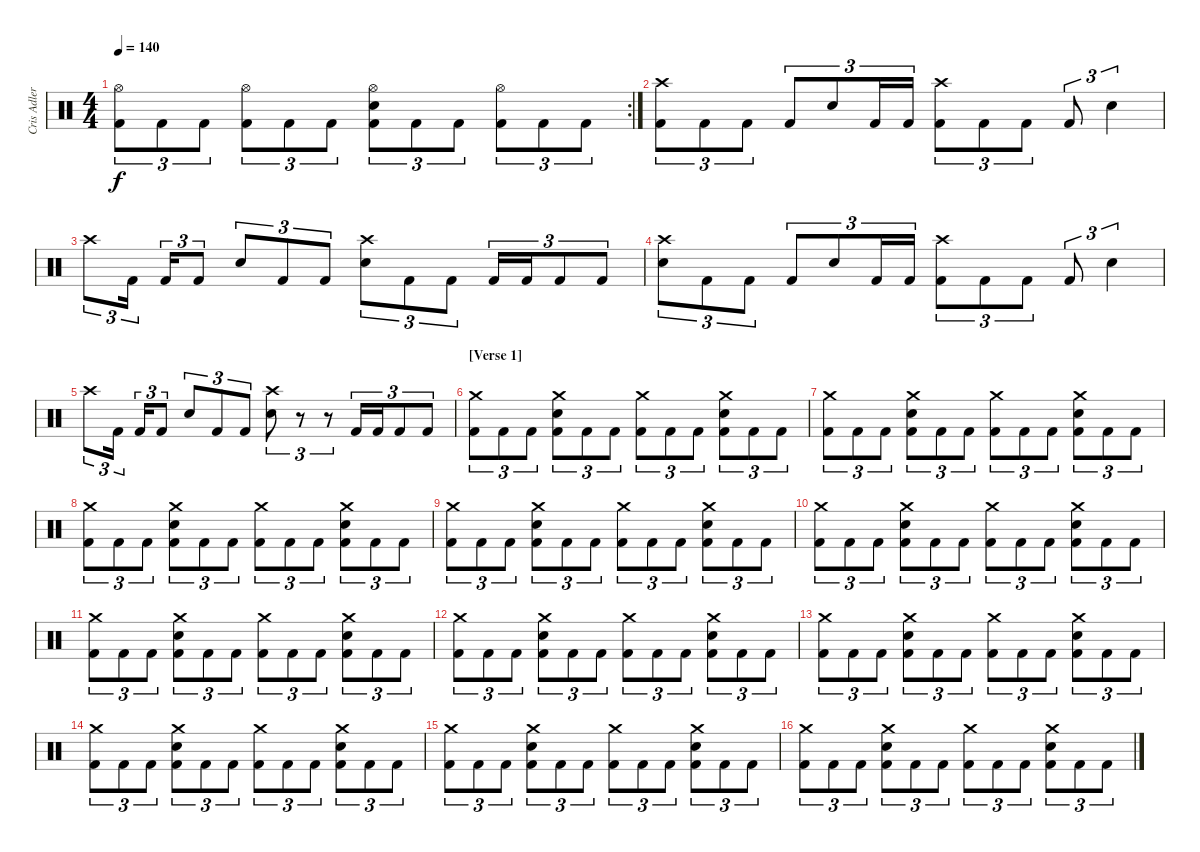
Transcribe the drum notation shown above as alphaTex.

\track ("Cris Adler" "Cris Adler") {instrument percussion}
\staff {score}
\articulation defaults
\rc 2
\ts (4 4)
\tempo 140
\clef neutral
\ks c
("Hi-Hat (open)" "Kick (hit) 2").8{tu (3 2) dy f} "Kick (hit) 2".8{tu (3 2)} "Kick (hit) 2".8{tu (3 2)} ("Hi-Hat (open)" "Kick (hit) 2").8{tu (3 2)} "Kick (hit) 2".8{tu (3 2)} "Kick (hit) 2".8{tu (3 2)} ("Hi-Hat (open)" "Electric Snare (hit)" "Kick (hit) 2").8{tu (3 2)} "Kick (hit) 2".8{tu (3 2)} "Kick (hit) 2".8{tu (3 2)} ("Hi-Hat (open)" "Kick (hit) 2").8{tu (3 2)} "Kick (hit) 2".8{tu (3 2)} "Kick (hit) 2".8{tu (3 2)} |
("Crash high (hit)" "Kick (hit) 2").8{tu (3 2)} "Kick (hit) 2".8{tu (3 2)} "Kick (hit) 2".8{tu (3 2)} "Kick (hit) 2".8{tu (3 2)} "Electric Snare (hit)".8{tu (3 2)} "Kick (hit) 2".16{tu (3 2)} "Kick (hit) 2".16{tu (3 2)} ("Crash high (hit)" "Kick (hit) 2").8{tu (3 2)} "Kick (hit) 2".8{tu (3 2)} "Kick (hit) 2".8{tu (3 2)} "Kick (hit) 2".8{tu (3 2)} "Electric Snare (hit)".4{tu (3 2)} |
"Crash high (hit)".8{tu (3 2)} "Kick (hit) 2".16{tu (3 2)} "Kick (hit) 2".16{tu (3 2)} "Kick (hit) 2".8{tu (3 2)} "Electric Snare (hit)".8{tu (3 2)} "Kick (hit) 2".8{tu (3 2)} "Kick (hit) 2".8{tu (3 2)} ("Crash high (hit)" "Electric Snare (hit)").8{tu (3 2)} "Kick (hit) 2".8{tu (3 2)} "Kick (hit) 2".8{tu (3 2)} "Kick (hit) 2".16{tu (3 2)} "Kick (hit) 2".16{tu (3 2)} "Kick (hit) 2".8{tu (3 2)} "Kick (hit) 2".8{tu (3 2)} |
("Crash high (hit)" "Electric Snare (hit)").8{tu (3 2)} "Kick (hit) 2".8{tu (3 2)} "Kick (hit) 2".8{tu (3 2)} "Kick (hit) 2".8{tu (3 2)} "Electric Snare (hit)".8{tu (3 2)} "Kick (hit) 2".16{tu (3 2)} "Kick (hit) 2".16{tu (3 2)} ("Crash high (hit)" "Kick (hit) 2").8{tu (3 2)} "Kick (hit) 2".8{tu (3 2)} "Kick (hit) 2".8{tu (3 2)} "Kick (hit) 2".8{tu (3 2)} "Electric Snare (hit)".4{tu (3 2)} |
"Crash high (hit)".8{tu (3 2)} "Kick (hit) 2".16{tu (3 2)} "Kick (hit) 2".16{tu (3 2)} "Kick (hit) 2".8{tu (3 2)} "Electric Snare (hit)".8{tu (3 2)} "Kick (hit) 2".8{tu (3 2)} "Kick (hit) 2".8{tu (3 2)} ("Crash high (hit)" "Electric Snare (hit)").8{tu (3 2)} r.8{tu (3 2)} r.8{tu (3 2)} "Kick (hit) 2".16{tu (3 2)} "Kick (hit) 2".16{tu (3 2)} "Kick (hit) 2".8{tu (3 2)} "Kick (hit) 2".8{tu (3 2)} |
\section ("" "[Verse 1]")
("Crash medium (hit)" "Kick (hit) 2").8{tu (3 2)} "Kick (hit) 2".8{tu (3 2)} "Kick (hit) 2".8{tu (3 2)} ("Crash medium (hit)" "Electric Snare (hit)" "Kick (hit) 2").8{tu (3 2)} "Kick (hit) 2".8{tu (3 2)} "Kick (hit) 2".8{tu (3 2)} ("Crash medium (hit)" "Kick (hit) 2").8{tu (3 2)} "Kick (hit) 2".8{tu (3 2)} "Kick (hit) 2".8{tu (3 2)} ("Crash medium (hit)" "Electric Snare (hit)" "Kick (hit) 2").8{tu (3 2)} "Kick (hit) 2".8{tu (3 2)} "Kick (hit) 2".8{tu (3 2)} |
("Crash medium (hit)" "Kick (hit) 2").8{tu (3 2)} "Kick (hit) 2".8{tu (3 2)} "Kick (hit) 2".8{tu (3 2)} ("Crash medium (hit)" "Electric Snare (hit)" "Kick (hit) 2").8{tu (3 2)} "Kick (hit) 2".8{tu (3 2)} "Kick (hit) 2".8{tu (3 2)} ("Crash medium (hit)" "Kick (hit) 2").8{tu (3 2)} "Kick (hit) 2".8{tu (3 2)} "Kick (hit) 2".8{tu (3 2)} ("Crash medium (hit)" "Electric Snare (hit)" "Kick (hit) 2").8{tu (3 2)} "Kick (hit) 2".8{tu (3 2)} "Kick (hit) 2".8{tu (3 2)} |
("Crash medium (hit)" "Kick (hit) 2").8{tu (3 2)} "Kick (hit) 2".8{tu (3 2)} "Kick (hit) 2".8{tu (3 2)} ("Crash medium (hit)" "Electric Snare (hit)" "Kick (hit) 2").8{tu (3 2)} "Kick (hit) 2".8{tu (3 2)} "Kick (hit) 2".8{tu (3 2)} ("Crash medium (hit)" "Kick (hit) 2").8{tu (3 2)} "Kick (hit) 2".8{tu (3 2)} "Kick (hit) 2".8{tu (3 2)} ("Crash medium (hit)" "Electric Snare (hit)" "Kick (hit) 2").8{tu (3 2)} "Kick (hit) 2".8{tu (3 2)} "Kick (hit) 2".8{tu (3 2)} |
("Crash medium (hit)" "Kick (hit) 2").8{tu (3 2)} "Kick (hit) 2".8{tu (3 2)} "Kick (hit) 2".8{tu (3 2)} ("Crash medium (hit)" "Electric Snare (hit)" "Kick (hit) 2").8{tu (3 2)} "Kick (hit) 2".8{tu (3 2)} "Kick (hit) 2".8{tu (3 2)} ("Crash medium (hit)" "Kick (hit) 2").8{tu (3 2)} "Kick (hit) 2".8{tu (3 2)} "Kick (hit) 2".8{tu (3 2)} ("Crash medium (hit)" "Electric Snare (hit)" "Kick (hit) 2").8{tu (3 2)} "Kick (hit) 2".8{tu (3 2)} "Kick (hit) 2".8{tu (3 2)} |
("Crash medium (hit)" "Kick (hit) 2").8{tu (3 2)} "Kick (hit) 2".8{tu (3 2)} "Kick (hit) 2".8{tu (3 2)} ("Crash medium (hit)" "Electric Snare (hit)" "Kick (hit) 2").8{tu (3 2)} "Kick (hit) 2".8{tu (3 2)} "Kick (hit) 2".8{tu (3 2)} ("Crash medium (hit)" "Kick (hit) 2").8{tu (3 2)} "Kick (hit) 2".8{tu (3 2)} "Kick (hit) 2".8{tu (3 2)} ("Crash medium (hit)" "Electric Snare (hit)" "Kick (hit) 2").8{tu (3 2)} "Kick (hit) 2".8{tu (3 2)} "Kick (hit) 2".8{tu (3 2)} |
("Crash medium (hit)" "Kick (hit) 2").8{tu (3 2)} "Kick (hit) 2".8{tu (3 2)} "Kick (hit) 2".8{tu (3 2)} ("Crash medium (hit)" "Electric Snare (hit)" "Kick (hit) 2").8{tu (3 2)} "Kick (hit) 2".8{tu (3 2)} "Kick (hit) 2".8{tu (3 2)} ("Crash medium (hit)" "Kick (hit) 2").8{tu (3 2)} "Kick (hit) 2".8{tu (3 2)} "Kick (hit) 2".8{tu (3 2)} ("Crash medium (hit)" "Electric Snare (hit)" "Kick (hit) 2").8{tu (3 2)} "Kick (hit) 2".8{tu (3 2)} "Kick (hit) 2".8{tu (3 2)} |
("Crash medium (hit)" "Kick (hit) 2").8{tu (3 2)} "Kick (hit) 2".8{tu (3 2)} "Kick (hit) 2".8{tu (3 2)} ("Crash medium (hit)" "Electric Snare (hit)" "Kick (hit) 2").8{tu (3 2)} "Kick (hit) 2".8{tu (3 2)} "Kick (hit) 2".8{tu (3 2)} ("Crash medium (hit)" "Kick (hit) 2").8{tu (3 2)} "Kick (hit) 2".8{tu (3 2)} "Kick (hit) 2".8{tu (3 2)} ("Crash medium (hit)" "Electric Snare (hit)" "Kick (hit) 2").8{tu (3 2)} "Kick (hit) 2".8{tu (3 2)} "Kick (hit) 2".8{tu (3 2)} |
("Crash medium (hit)" "Kick (hit) 2").8{tu (3 2)} "Kick (hit) 2".8{tu (3 2)} "Kick (hit) 2".8{tu (3 2)} ("Crash medium (hit)" "Electric Snare (hit)" "Kick (hit) 2").8{tu (3 2)} "Kick (hit) 2".8{tu (3 2)} "Kick (hit) 2".8{tu (3 2)} ("Crash medium (hit)" "Kick (hit) 2").8{tu (3 2)} "Kick (hit) 2".8{tu (3 2)} "Kick (hit) 2".8{tu (3 2)} ("Crash medium (hit)" "Electric Snare (hit)" "Kick (hit) 2").8{tu (3 2)} "Kick (hit) 2".8{tu (3 2)} "Kick (hit) 2".8{tu (3 2)} |
("Crash medium (hit)" "Kick (hit) 2").8{tu (3 2)} "Kick (hit) 2".8{tu (3 2)} "Kick (hit) 2".8{tu (3 2)} ("Crash medium (hit)" "Electric Snare (hit)" "Kick (hit) 2").8{tu (3 2)} "Kick (hit) 2".8{tu (3 2)} "Kick (hit) 2".8{tu (3 2)} ("Crash medium (hit)" "Kick (hit) 2").8{tu (3 2)} "Kick (hit) 2".8{tu (3 2)} "Kick (hit) 2".8{tu (3 2)} ("Crash medium (hit)" "Electric Snare (hit)" "Kick (hit) 2").8{tu (3 2)} "Kick (hit) 2".8{tu (3 2)} "Kick (hit) 2".8{tu (3 2)} |
("Crash medium (hit)" "Kick (hit) 2").8{tu (3 2)} "Kick (hit) 2".8{tu (3 2)} "Kick (hit) 2".8{tu (3 2)} ("Crash medium (hit)" "Electric Snare (hit)" "Kick (hit) 2").8{tu (3 2)} "Kick (hit) 2".8{tu (3 2)} "Kick (hit) 2".8{tu (3 2)} ("Crash medium (hit)" "Kick (hit) 2").8{tu (3 2)} "Kick (hit) 2".8{tu (3 2)} "Kick (hit) 2".8{tu (3 2)} ("Crash medium (hit)" "Electric Snare (hit)" "Kick (hit) 2").8{tu (3 2)} "Kick (hit) 2".8{tu (3 2)} "Kick (hit) 2".8{tu (3 2)} |
("Crash medium (hit)" "Kick (hit) 2").8{tu (3 2)} "Kick (hit) 2".8{tu (3 2)} "Kick (hit) 2".8{tu (3 2)} ("Crash medium (hit)" "Electric Snare (hit)" "Kick (hit) 2").8{tu (3 2)} "Kick (hit) 2".8{tu (3 2)} "Kick (hit) 2".8{tu (3 2)} ("Crash medium (hit)" "Kick (hit) 2").8{tu (3 2)} "Kick (hit) 2".8{tu (3 2)} "Kick (hit) 2".8{tu (3 2)} ("Crash medium (hit)" "Electric Snare (hit)" "Kick (hit) 2").8{tu (3 2)} "Kick (hit) 2".8{tu (3 2)} "Kick (hit) 2".8{tu (3 2)}
